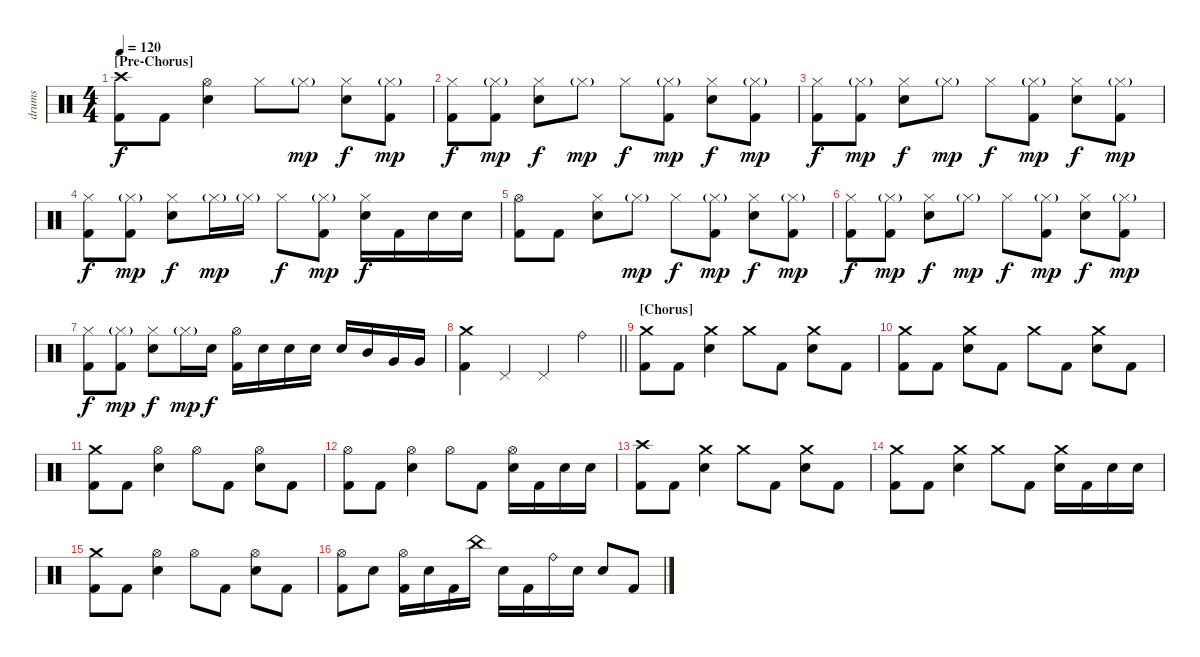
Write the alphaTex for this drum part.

\track ("drums" "drums") {instrument percussion}
\staff {score}
\articulation defaults
\ts (4 4)
\section ("" "[Pre-Chorus]")
\tempo 120
\clef neutral
\ks c
("Crash high (hit)" "Kick (hit) 2").8{dy f} "Kick (hit) 2".8 ("Hi-Hat (open)" "Electric Snare (hit)").4 "Hi-Hat (closed)".8 "Hi-Hat (closed)"{g}.8{dy mp} ("Hi-Hat (closed)" "Electric Snare (hit)").8{dy f} ("Hi-Hat (closed)"{g} "Kick (hit) 2").8{dy mp} |
("Hi-Hat (closed)" "Kick (hit) 2").8{dy f} ("Hi-Hat (closed)"{g} "Kick (hit) 2").8{dy mp} ("Hi-Hat (closed)" "Electric Snare (hit)").8{dy f} "Hi-Hat (closed)"{g}.8{dy mp} "Hi-Hat (closed)".8{dy f} ("Hi-Hat (closed)"{g} "Kick (hit) 2").8{dy mp} ("Hi-Hat (closed)" "Electric Snare (hit)").8{dy f} ("Hi-Hat (closed)"{g} "Kick (hit) 2").8{dy mp} |
("Hi-Hat (closed)" "Kick (hit) 2").8{dy f} ("Hi-Hat (closed)"{g} "Kick (hit) 2").8{dy mp} ("Hi-Hat (closed)" "Electric Snare (hit)").8{dy f} "Hi-Hat (closed)"{g}.8{dy mp} "Hi-Hat (closed)".8{dy f} ("Hi-Hat (closed)"{g} "Kick (hit) 2").8{dy mp} ("Hi-Hat (closed)" "Electric Snare (hit)").8{dy f} ("Hi-Hat (closed)"{g} "Kick (hit) 2").8{dy mp} |
("Hi-Hat (closed)" "Kick (hit) 2").8{dy f} ("Hi-Hat (closed)"{g} "Kick (hit) 2").8{dy mp} ("Hi-Hat (closed)" "Electric Snare (hit)").8{dy f} "Hi-Hat (closed)"{g}.16{dy mp} "Hi-Hat (closed)"{g}.16 "Hi-Hat (closed)".8{dy f} ("Hi-Hat (closed)"{g} "Kick (hit) 2").8{dy mp} ("Hi-Hat (closed)" "Electric Snare (hit)").16{dy f} "Kick (hit) 2".16 "Electric Snare (hit)".16 "Electric Snare (hit)".16 |
("Hi-Hat (open)" "Kick (hit) 2").8 "Kick (hit) 2".8 ("Hi-Hat (closed)" "Electric Snare (hit)").8 "Hi-Hat (closed)"{g}.8{dy mp} "Hi-Hat (closed)".8{dy f} ("Hi-Hat (closed)"{g} "Kick (hit) 2").8{dy mp} ("Hi-Hat (closed)" "Electric Snare (hit)").8{dy f} ("Hi-Hat (closed)"{g} "Kick (hit) 2").8{dy mp} |
("Hi-Hat (closed)" "Kick (hit) 2").8{dy f} ("Hi-Hat (closed)"{g} "Kick (hit) 2").8{dy mp} ("Hi-Hat (closed)" "Electric Snare (hit)").8{dy f} "Hi-Hat (closed)"{g}.8{dy mp} "Hi-Hat (closed)".8{dy f} ("Hi-Hat (closed)"{g} "Kick (hit) 2").8{dy mp} ("Hi-Hat (closed)" "Electric Snare (hit)").8{dy f} ("Hi-Hat (closed)"{g} "Kick (hit) 2").8{dy mp} |
("Hi-Hat (closed)" "Kick (hit) 2").8{dy f} ("Hi-Hat (closed)"{g} "Kick (hit) 2").8{dy mp} ("Hi-Hat (closed)" "Electric Snare (hit)").8{dy f} "Hi-Hat (closed)"{g}.16{dy mp} "Electric Snare (hit)".16{dy f} ("Hi-Hat (open)" "Kick (hit) 2").16 "Electric Snare (hit)".16 "Electric Snare (hit)".16 "Electric Snare (hit)".16 "Electric Snare (hit)".16 "Mid Tom (hit)".16 "Very Low Tom (hit)".16 "Very Low Tom (hit)".16 |
\barLineRight lightlight
("Crash medium (hit)" "Kick (hit) 2").4 "Pedal Hi-Hat (hit)".4 "Pedal Hi-Hat (hit)".4 "Ride (bell)".4 |
\section ("" "[Chorus]")
("Crash medium (hit)" "Kick (hit) 2").8 "Kick (hit) 2".8 ("Crash medium (hit)" "Electric Snare (hit)").4 "Crash medium (hit)".8 "Kick (hit) 2".8 ("Crash medium (hit)" "Electric Snare (hit)").8 "Kick (hit) 2".8 |
("Crash medium (hit)" "Kick (hit) 2").8 "Kick (hit) 2".8 ("Crash medium (hit)" "Electric Snare (hit)").8 "Kick (hit) 2".8 "Crash medium (hit)".8 "Kick (hit) 2".8 ("Crash medium (hit)" "Electric Snare (hit)").8 "Kick (hit) 2".8 |
("Crash medium (hit)" "Kick (hit) 2").8 "Kick (hit) 2".8 ("Hi-Hat (open)" "Electric Snare (hit)").4 "Hi-Hat (open)".8 "Kick (hit) 2".8 ("Hi-Hat (open)" "Electric Snare (hit)").8 "Kick (hit) 2".8 |
("Hi-Hat (open)" "Kick (hit) 2").8 "Kick (hit) 2".8 ("Hi-Hat (open)" "Electric Snare (hit)").4 "Hi-Hat (open)".8 "Kick (hit) 2".8 ("Hi-Hat (open)" "Electric Snare (hit)").16 "Kick (hit) 2".16 "Electric Snare (hit)".16 "Electric Snare (hit)".16 |
("Crash high (hit)" "Kick (hit) 2").8 "Kick (hit) 2".8 ("Crash medium (hit)" "Electric Snare (hit)").4 "Crash medium (hit)".8 "Kick (hit) 2".8 ("Crash medium (hit)" "Electric Snare (hit)").8 "Kick (hit) 2".8 |
("Crash medium (hit)" "Kick (hit) 2").8 "Kick (hit) 2".8 ("Crash medium (hit)" "Electric Snare (hit)").4 "Crash medium (hit)".8 "Kick (hit) 2".8 ("Crash medium (hit)" "Electric Snare (hit)").16 "Kick (hit) 2".16 "Electric Snare (hit)".16 "Electric Snare (hit)".16 |
("Crash medium (hit)" "Kick (hit) 2").8 "Kick (hit) 2".8 ("Hi-Hat (open)" "Electric Snare (hit)").4 "Hi-Hat (open)".8 "Kick (hit) 2".8 ("Hi-Hat (open)" "Electric Snare (hit)").8 "Kick (hit) 2".8 |
("Hi-Hat (open)" "Kick (hit) 2").8 "Electric Snare (hit)".8 ("Hi-Hat (open)" "Kick (hit) 2").16 "Electric Snare (hit)".16 "Kick (hit) 2".16 "China (hit)".16 "Electric Snare (hit)".16 "Kick (hit) 2".16 "Ride (bell)".16 "Electric Snare (hit)".16 "Electric Snare (hit)".8 "Kick (hit) 2".8
